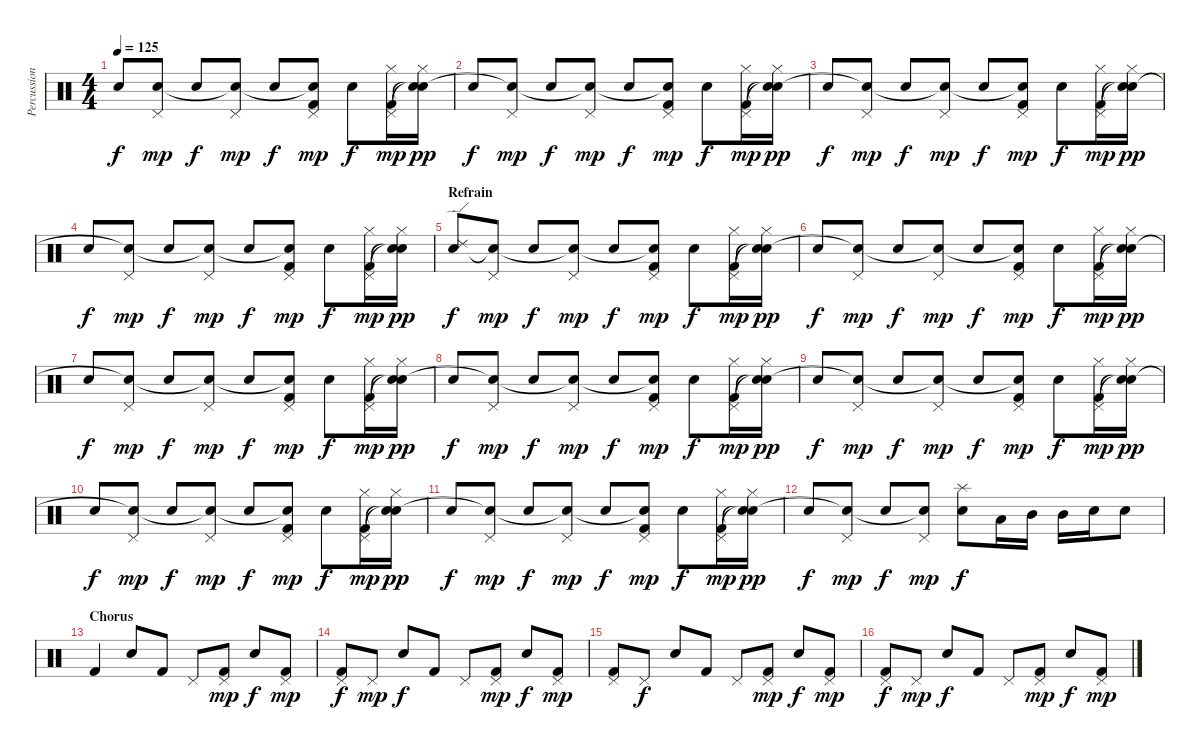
\track ("Percussion" "Percussion") {instrument percussion}
\staff {score}
\articulation defaults
\ts (4 4)
\tempo 125
\clef neutral
\ks c "Electric Snare (hit)".8{dy f}
("Pedal Hi-Hat (hit)" "Snare (hit)"{t}).8{dy mp} "Electric Snare (hit)".8{dy f} ("Pedal Hi-Hat (hit)" "Snare (hit)"{t}).8{dy mp} "Electric Snare (hit)".8{dy f} ("Pedal Hi-Hat (hit)" "Snare (hit)"{t} "Kick (hit) 2").8{dy mp} "Electric Snare (hit)".8{dy f} ("Hi-Hat (closed)" "Pedal Hi-Hat (hit)" "Kick (hit) 2").16{dy mp} ("Hi-Hat (closed)" "Snare (hit)"{t} "Snare (hit)"{t}).16{dy pp} |
"Electric Snare (hit)".8{dy f} ("Pedal Hi-Hat (hit)" "Snare (hit)"{t}).8{dy mp} "Electric Snare (hit)".8{dy f} ("Pedal Hi-Hat (hit)" "Snare (hit)"{t}).8{dy mp} "Electric Snare (hit)".8{dy f} ("Pedal Hi-Hat (hit)" "Snare (hit)"{t} "Kick (hit) 2").8{dy mp} "Electric Snare (hit)".8{dy f} ("Hi-Hat (closed)" "Pedal Hi-Hat (hit)" "Kick (hit) 2").16{dy mp} ("Hi-Hat (closed)" "Snare (hit)"{t} "Snare (hit)"{t}).16{dy pp} |
"Electric Snare (hit)".8{dy f} ("Pedal Hi-Hat (hit)" "Snare (hit)"{t}).8{dy mp} "Electric Snare (hit)".8{dy f} ("Pedal Hi-Hat (hit)" "Snare (hit)"{t}).8{dy mp} "Electric Snare (hit)".8{dy f} ("Pedal Hi-Hat (hit)" "Snare (hit)"{t} "Kick (hit) 2").8{dy mp} "Electric Snare (hit)".8{dy f} ("Hi-Hat (closed)" "Pedal Hi-Hat (hit)" "Kick (hit) 2").16{dy mp} ("Hi-Hat (closed)" "Snare (hit)"{t} "Snare (hit)"{t}).16{dy pp} |
"Electric Snare (hit)".8{dy f} ("Pedal Hi-Hat (hit)" "Snare (hit)"{t}).8{dy mp} "Electric Snare (hit)".8{dy f} ("Pedal Hi-Hat (hit)" "Snare (hit)"{t}).8{dy mp} "Electric Snare (hit)".8{dy f} ("Pedal Hi-Hat (hit)" "Snare (hit)"{t} "Kick (hit) 2").8{dy mp} "Electric Snare (hit)".8{dy f} ("Hi-Hat (closed)" "Pedal Hi-Hat (hit)" "Kick (hit) 2").16{dy mp} ("Hi-Hat (closed)" "Snare (hit)"{t} "Snare (hit)"{t}).16{dy pp} |
\section ("" "Refrain")
("Ride (edge) 2" "Electric Snare (hit)").8{dy f} ("Pedal Hi-Hat (hit)" "Snare (hit)"{t}).8{dy mp} "Electric Snare (hit)".8{dy f} ("Pedal Hi-Hat (hit)" "Snare (hit)"{t}).8{dy mp} "Electric Snare (hit)".8{dy f} ("Pedal Hi-Hat (hit)" "Snare (hit)"{t} "Kick (hit) 2").8{dy mp} "Electric Snare (hit)".8{dy f} ("Hi-Hat (closed)" "Pedal Hi-Hat (hit)" "Kick (hit) 2").16{dy mp} ("Hi-Hat (closed)" "Snare (hit)"{t} "Snare (hit)"{t}).16{dy pp} |
"Electric Snare (hit)".8{dy f} ("Pedal Hi-Hat (hit)" "Snare (hit)"{t}).8{dy mp} "Electric Snare (hit)".8{dy f} ("Pedal Hi-Hat (hit)" "Snare (hit)"{t}).8{dy mp} "Electric Snare (hit)".8{dy f} ("Pedal Hi-Hat (hit)" "Snare (hit)"{t} "Kick (hit) 2").8{dy mp} "Electric Snare (hit)".8{dy f} ("Hi-Hat (closed)" "Pedal Hi-Hat (hit)" "Kick (hit) 2").16{dy mp} ("Hi-Hat (closed)" "Snare (hit)"{t} "Snare (hit)"{t}).16{dy pp} |
"Electric Snare (hit)".8{dy f} ("Pedal Hi-Hat (hit)" "Snare (hit)"{t}).8{dy mp} "Electric Snare (hit)".8{dy f} ("Pedal Hi-Hat (hit)" "Snare (hit)"{t}).8{dy mp} "Electric Snare (hit)".8{dy f} ("Pedal Hi-Hat (hit)" "Snare (hit)"{t} "Kick (hit) 2").8{dy mp} "Electric Snare (hit)".8{dy f} ("Hi-Hat (closed)" "Pedal Hi-Hat (hit)" "Kick (hit) 2").16{dy mp} ("Hi-Hat (closed)" "Snare (hit)"{t} "Snare (hit)"{t}).16{dy pp} |
"Electric Snare (hit)".8{dy f} ("Pedal Hi-Hat (hit)" "Snare (hit)"{t}).8{dy mp} "Electric Snare (hit)".8{dy f} ("Pedal Hi-Hat (hit)" "Snare (hit)"{t}).8{dy mp} "Electric Snare (hit)".8{dy f} ("Pedal Hi-Hat (hit)" "Snare (hit)"{t} "Kick (hit) 2").8{dy mp} "Electric Snare (hit)".8{dy f} ("Hi-Hat (closed)" "Pedal Hi-Hat (hit)" "Kick (hit) 2").16{dy mp} ("Hi-Hat (closed)" "Snare (hit)"{t} "Snare (hit)"{t}).16{dy pp} |
"Electric Snare (hit)".8{dy f} ("Pedal Hi-Hat (hit)" "Snare (hit)"{t}).8{dy mp} "Electric Snare (hit)".8{dy f} ("Pedal Hi-Hat (hit)" "Snare (hit)"{t}).8{dy mp} "Electric Snare (hit)".8{dy f} ("Pedal Hi-Hat (hit)" "Snare (hit)"{t} "Kick (hit) 2").8{dy mp} "Electric Snare (hit)".8{dy f} ("Hi-Hat (closed)" "Pedal Hi-Hat (hit)" "Kick (hit) 2").16{dy mp} ("Hi-Hat (closed)" "Snare (hit)"{t} "Snare (hit)"{t}).16{dy pp} |
"Electric Snare (hit)".8{dy f} ("Pedal Hi-Hat (hit)" "Snare (hit)"{t}).8{dy mp} "Electric Snare (hit)".8{dy f} ("Pedal Hi-Hat (hit)" "Snare (hit)"{t}).8{dy mp} "Electric Snare (hit)".8{dy f} ("Pedal Hi-Hat (hit)" "Snare (hit)"{t} "Kick (hit) 2").8{dy mp} "Electric Snare (hit)".8{dy f} ("Hi-Hat (closed)" "Pedal Hi-Hat (hit)" "Kick (hit) 2").16{dy mp} ("Hi-Hat (closed)" "Snare (hit)"{t} "Snare (hit)"{t}).16{dy pp} |
"Electric Snare (hit)".8{dy f} ("Pedal Hi-Hat (hit)" "Snare (hit)"{t}).8{dy mp} "Electric Snare (hit)".8{dy f} ("Pedal Hi-Hat (hit)" "Snare (hit)"{t}).8{dy mp} "Electric Snare (hit)".8{dy f} ("Pedal Hi-Hat (hit)" "Snare (hit)"{t} "Kick (hit) 2").8{dy mp} "Electric Snare (hit)".8{dy f} ("Hi-Hat (closed)" "Pedal Hi-Hat (hit)" "Kick (hit) 2").16{dy mp} ("Hi-Hat (closed)" "Snare (hit)"{t} "Snare (hit)"{t}).16{dy pp} |
"Electric Snare (hit)".8{dy f} ("Pedal Hi-Hat (hit)" "Snare (hit)"{t}).8{dy mp} "Electric Snare (hit)".8{dy f} ("Pedal Hi-Hat (hit)" "Snare (hit)"{t}).8{dy mp} ("Splash (hit)" "Electric Snare (hit)").8{dy f} "Low Tom (hit)".16 "Mid Tom (hit)".16 "Mid Tom (hit)".16 "Electric Snare (hit)".16 "Electric Snare (hit)".8 |
\section ("" "Chorus")
"Kick (hit) 2".4 "Electric Snare (hit)".8 "Kick (hit) 2".8 "Pedal Hi-Hat (hit)".8 ("Pedal Hi-Hat (hit)" "Kick (hit) 2").8{dy mp} "Electric Snare (hit)".8{dy f} ("Pedal Hi-Hat (hit)" "Kick (hit) 2").8{dy mp} |
("Pedal Hi-Hat (hit)" "Kick (hit) 2").8{dy f} "Pedal Hi-Hat (hit)".8{dy mp} "Electric Snare (hit)".8{dy f} "Kick (hit) 2".8 "Pedal Hi-Hat (hit)".8 ("Pedal Hi-Hat (hit)" "Kick (hit) 2").8{dy mp} "Electric Snare (hit)".8{dy f} ("Pedal Hi-Hat (hit)" "Kick (hit) 2").8{dy mp} |
("Pedal Hi-Hat (hit)" "Kick (hit) 2").8 "Pedal Hi-Hat (hit)".8{dy f} "Electric Snare (hit)".8 "Kick (hit) 2".8 "Pedal Hi-Hat (hit)".8 ("Pedal Hi-Hat (hit)" "Kick (hit) 2").8{dy mp} "Electric Snare (hit)".8{dy f} ("Pedal Hi-Hat (hit)" "Kick (hit) 2").8{dy mp} |
("Pedal Hi-Hat (hit)" "Kick (hit) 2").8{dy f} "Pedal Hi-Hat (hit)".8{dy mp} "Electric Snare (hit)".8{dy f} "Kick (hit) 2".8 "Pedal Hi-Hat (hit)".8 ("Pedal Hi-Hat (hit)" "Kick (hit) 2").8{dy mp} "Electric Snare (hit)".8{dy f} ("Pedal Hi-Hat (hit)" "Kick (hit) 2").8{dy mp}
